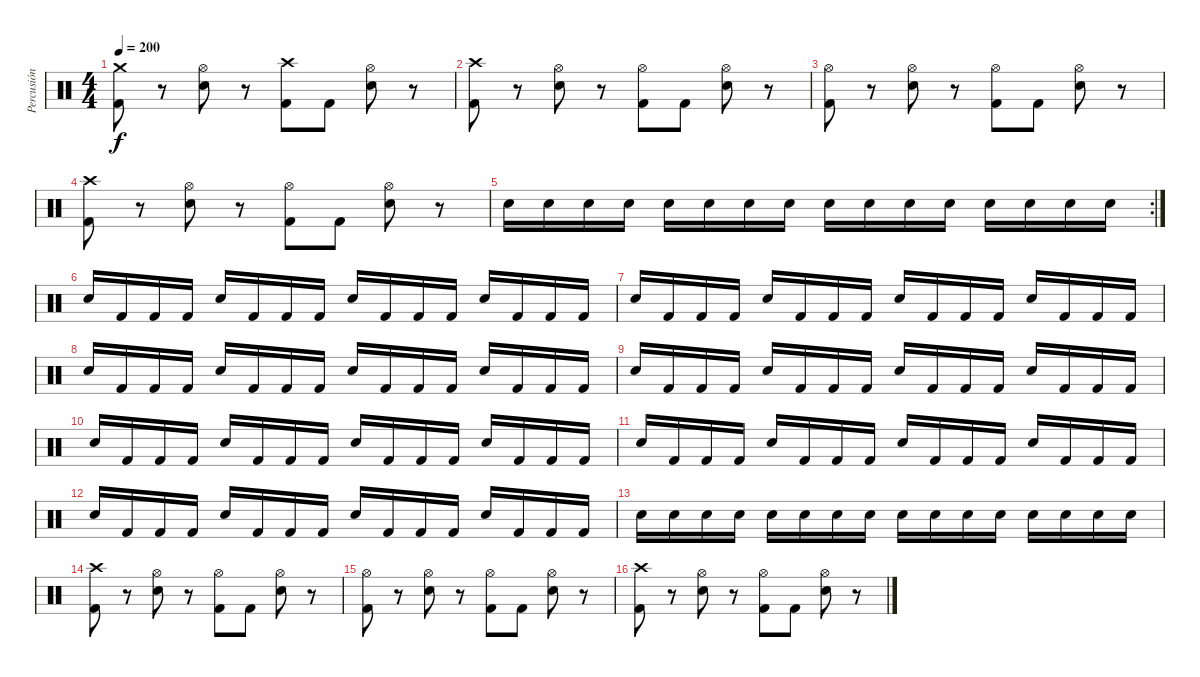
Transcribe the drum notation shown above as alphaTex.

\track ("Percusión" "Percusión") {instrument percussion}
\staff {score}
\articulation defaults
\ts (4 4)
\tempo 200
\clef neutral
\ks c
("Crash medium (hit)" "Kick (hit) 2").8{dy f} r.8 ("Hi-Hat (open)" "Electric Snare (hit)").8 r.8 ("Crash high (hit)" "Kick (hit) 2").8 "Kick (hit) 2".8 ("Hi-Hat (open)" "Electric Snare (hit)").8 r.8 |
("Crash high (hit)" "Kick (hit) 2").8 r.8 ("Hi-Hat (open)" "Electric Snare (hit)").8 r.8 ("Hi-Hat (open)" "Kick (hit) 2").8 "Kick (hit) 2".8 ("Hi-Hat (open)" "Electric Snare (hit)").8 r.8 |
("Hi-Hat (open)" "Kick (hit) 2").8 r.8 ("Hi-Hat (open)" "Electric Snare (hit)").8 r.8 ("Hi-Hat (open)" "Kick (hit) 2").8 "Kick (hit) 2".8 ("Hi-Hat (open)" "Electric Snare (hit)").8 r.8 |
("Crash high (hit)" "Kick (hit) 2").8 r.8 ("Hi-Hat (open)" "Electric Snare (hit)").8 r.8 ("Hi-Hat (open)" "Kick (hit) 2").8 "Kick (hit) 2".8 ("Hi-Hat (open)" "Electric Snare (hit)").8 r.8 |
\rc 2 "Electric Snare (hit)".16 "Electric Snare (hit)".16 "Electric Snare (hit)".16 "Electric Snare (hit)".16 "Electric Snare (hit)".16 "Electric Snare (hit)".16 "Electric Snare (hit)".16 "Electric Snare (hit)".16 "Electric Snare (hit)".16 "Electric Snare (hit)".16 "Electric Snare (hit)".16 "Electric Snare (hit)".16 "Electric Snare (hit)".16 "Electric Snare (hit)".16 "Electric Snare (hit)".16 "Electric Snare (hit)".16
|
"Electric Snare (hit)".16 "Kick (hit) 2".16 "Kick (hit) 2".16 "Kick (hit) 2".16 "Electric Snare (hit)".16 "Kick (hit) 2".16 "Kick (hit) 2".16 "Kick (hit) 2".16 "Electric Snare (hit)".16 "Kick (hit) 2".16 "Kick (hit) 2".16 "Kick (hit) 2".16 "Electric Snare (hit)".16 "Kick (hit) 2".16 "Kick (hit) 2".16 "Kick (hit) 2".16 |
"Electric Snare (hit)".16 "Kick (hit) 2".16 "Kick (hit) 2".16 "Kick (hit) 2".16 "Electric Snare (hit)".16 "Kick (hit) 2".16 "Kick (hit) 2".16 "Kick (hit) 2".16 "Electric Snare (hit)".16 "Kick (hit) 2".16 "Kick (hit) 2".16 "Kick (hit) 2".16 "Electric Snare (hit)".16 "Kick (hit) 2".16 "Kick (hit) 2".16 "Kick (hit) 2".16 |
"Electric Snare (hit)".16 "Kick (hit) 2".16 "Kick (hit) 2".16 "Kick (hit) 2".16 "Electric Snare (hit)".16 "Kick (hit) 2".16 "Kick (hit) 2".16 "Kick (hit) 2".16 "Electric Snare (hit)".16 "Kick (hit) 2".16 "Kick (hit) 2".16 "Kick (hit) 2".16 "Electric Snare (hit)".16 "Kick (hit) 2".16 "Kick (hit) 2".16 "Kick (hit) 2".16 |
"Electric Snare (hit)".16 "Kick (hit) 2".16 "Kick (hit) 2".16 "Kick (hit) 2".16 "Electric Snare (hit)".16 "Kick (hit) 2".16 "Kick (hit) 2".16 "Kick (hit) 2".16 "Electric Snare (hit)".16 "Kick (hit) 2".16 "Kick (hit) 2".16 "Kick (hit) 2".16 "Electric Snare (hit)".16 "Kick (hit) 2".16 "Kick (hit) 2".16 "Kick (hit) 2".16 |
"Electric Snare (hit)".16 "Kick (hit) 2".16 "Kick (hit) 2".16 "Kick (hit) 2".16 "Electric Snare (hit)".16 "Kick (hit) 2".16 "Kick (hit) 2".16 "Kick (hit) 2".16 "Electric Snare (hit)".16 "Kick (hit) 2".16 "Kick (hit) 2".16 "Kick (hit) 2".16 "Electric Snare (hit)".16 "Kick (hit) 2".16 "Kick (hit) 2".16 "Kick (hit) 2".16 |
"Electric Snare (hit)".16 "Kick (hit) 2".16 "Kick (hit) 2".16 "Kick (hit) 2".16 "Electric Snare (hit)".16 "Kick (hit) 2".16 "Kick (hit) 2".16 "Kick (hit) 2".16 "Electric Snare (hit)".16 "Kick (hit) 2".16 "Kick (hit) 2".16 "Kick (hit) 2".16 "Electric Snare (hit)".16 "Kick (hit) 2".16 "Kick (hit) 2".16 "Kick (hit) 2".16 |
"Electric Snare (hit)".16 "Kick (hit) 2".16 "Kick (hit) 2".16 "Kick (hit) 2".16 "Electric Snare (hit)".16 "Kick (hit) 2".16 "Kick (hit) 2".16 "Kick (hit) 2".16 "Electric Snare (hit)".16 "Kick (hit) 2".16 "Kick (hit) 2".16 "Kick (hit) 2".16 "Electric Snare (hit)".16 "Kick (hit) 2".16 "Kick (hit) 2".16 "Kick (hit) 2".16 |
"Electric Snare (hit)".16 "Electric Snare (hit)".16 "Electric Snare (hit)".16 "Electric Snare (hit)".16 "Electric Snare (hit)".16 "Electric Snare (hit)".16 "Electric Snare (hit)".16 "Electric Snare (hit)".16 "Electric Snare (hit)".16 "Electric Snare (hit)".16 "Electric Snare (hit)".16 "Electric Snare (hit)".16 "Electric Snare (hit)".16 "Electric Snare (hit)".16 "Electric Snare (hit)".16 "Electric Snare (hit)".16 |
("Crash high (hit)" "Kick (hit) 2").8 r.8 ("Hi-Hat (open)" "Electric Snare (hit)").8 r.8 ("Hi-Hat (open)" "Kick (hit) 2").8 "Kick (hit) 2".8 ("Hi-Hat (open)" "Electric Snare (hit)").8 r.8 |
("Hi-Hat (open)" "Kick (hit) 2").8 r.8 ("Hi-Hat (open)" "Electric Snare (hit)").8 r.8 ("Hi-Hat (open)" "Kick (hit) 2").8 "Kick (hit) 2".8 ("Hi-Hat (open)" "Electric Snare (hit)").8 r.8 |
("Crash high (hit)" "Kick (hit) 2").8 r.8 ("Hi-Hat (open)" "Electric Snare (hit)").8 r.8 ("Hi-Hat (open)" "Kick (hit) 2").8 "Kick (hit) 2".8 ("Hi-Hat (open)" "Electric Snare (hit)").8 r.8
